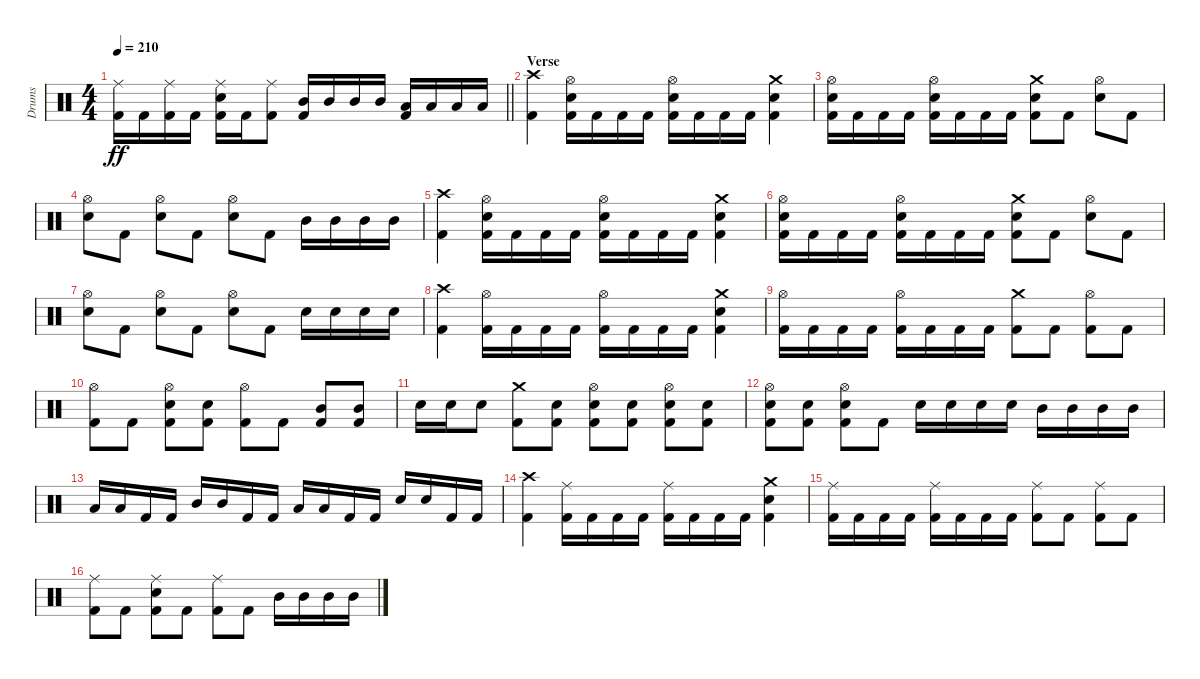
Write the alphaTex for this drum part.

\track ("Drums" "Drums") {instrument percussion}
\staff {score}
\articulation defaults
\ts (4 4)
\tempo 210
\clef neutral
\barLineRight lightlight
\ks c
("Ride (middle)" "Kick (hit) 2").16{dy ff} "Kick (hit) 2".16 ("Ride (middle)" "Kick (hit) 2").16 "Kick (hit) 2".16 ("Ride (middle)" "Snare (hit) 2" "Kick (hit) 2").16 "Kick (hit) 2".16 ("Ride (middle)" "Kick (hit) 2").8 ("Mid Tom (hit)" "Kick (hit) 2").16 "Mid Tom (hit)".16 "Mid Tom (hit)".16 "Mid Tom (hit)".16 ("Low Tom (hit)" "Kick (hit) 2").16 "Low Tom (hit)".16 "Low Tom (hit)".16 "Low Tom (hit)".16 |
\section ("" "Verse")
("Crash high (hit)" "Kick (hit) 2").4 ("Hi-Hat (open)" "Snare (hit) 2" "Kick (hit) 2").16 "Kick (hit) 2".16 "Kick (hit) 2".16 "Kick (hit) 2".16 ("Hi-Hat (open)" "Snare (hit) 2" "Kick (hit) 2").16 "Kick (hit) 2".16 "Kick (hit) 2".16 "Kick (hit) 2".16 ("Crash medium (hit)" "Snare (hit) 2" "Kick (hit) 2").4 |
("Hi-Hat (open)" "Snare (hit) 2" "Kick (hit) 2").16 "Kick (hit) 2".16 "Kick (hit) 2".16 "Kick (hit) 2".16 ("Hi-Hat (open)" "Snare (hit) 2" "Kick (hit) 2").16 "Kick (hit) 2".16 "Kick (hit) 2".16 "Kick (hit) 2".16 ("Crash medium (hit)" "Snare (hit) 2" "Kick (hit) 2").8 "Kick (hit) 2".8 ("Hi-Hat (open)" "Snare (hit) 2").8 "Kick (hit) 2".8 |
("Hi-Hat (open)" "Snare (hit) 2").8 "Kick (hit) 2".8 ("Hi-Hat (open)" "Snare (hit) 2").8 "Kick (hit) 2".8 ("Hi-Hat (open)" "Snare (hit) 2").8 "Kick (hit) 2".8 "Mid Tom (hit)".16 "Mid Tom (hit)".16 "Mid Tom (hit)".16 "Mid Tom (hit)".16 |
("Crash high (hit)" "Kick (hit) 2").4 ("Hi-Hat (open)" "Snare (hit) 2" "Kick (hit) 2").16 "Kick (hit) 2".16 "Kick (hit) 2".16 "Kick (hit) 2".16 ("Hi-Hat (open)" "Snare (hit) 2" "Kick (hit) 2").16 "Kick (hit) 2".16 "Kick (hit) 2".16 "Kick (hit) 2".16 ("Crash medium (hit)" "Snare (hit) 2" "Kick (hit) 2").4 |
("Hi-Hat (open)" "Snare (hit) 2" "Kick (hit) 2").16 "Kick (hit) 2".16 "Kick (hit) 2".16 "Kick (hit) 2".16 ("Hi-Hat (open)" "Snare (hit) 2" "Kick (hit) 2").16 "Kick (hit) 2".16 "Kick (hit) 2".16 "Kick (hit) 2".16 ("Crash medium (hit)" "Snare (hit) 2" "Kick (hit) 2").8 "Kick (hit) 2".8 ("Hi-Hat (open)" "Snare (hit) 2").8 "Kick (hit) 2".8 |
("Hi-Hat (open)" "Snare (hit) 2").8 "Kick (hit) 2".8 ("Hi-Hat (open)" "Snare (hit) 2").8 "Kick (hit) 2".8 ("Hi-Hat (open)" "Snare (hit) 2").8 "Kick (hit) 2".8 "Snare (hit) 2".16 "Snare (hit) 2".16 "Snare (hit) 2".16 "Snare (hit) 2".16 |
("Crash high (hit)" "Kick (hit) 2").4 ("Hi-Hat (open)" "Kick (hit) 2").16 "Kick (hit) 2".16 "Kick (hit) 2".16 "Kick (hit) 2".16 ("Hi-Hat (open)" "Kick (hit) 2").16 "Kick (hit) 2".16 "Kick (hit) 2".16 "Kick (hit) 2".16 ("Crash medium (hit)" "Snare (hit) 2" "Kick (hit) 2").4 |
("Hi-Hat (open)" "Kick (hit) 2").16 "Kick (hit) 2".16 "Kick (hit) 2".16 "Kick (hit) 2".16 ("Hi-Hat (open)" "Kick (hit) 2").16 "Kick (hit) 2".16 "Kick (hit) 2".16 "Kick (hit) 2".16 ("Crash medium (hit)" "Kick (hit) 2").8 "Kick (hit) 2".8 ("Hi-Hat (open)" "Kick (hit) 2").8 "Kick (hit) 2".8 |
("Hi-Hat (open)" "Kick (hit) 2").8 "Kick (hit) 2".8 ("Hi-Hat (open)" "Snare (hit) 2" "Kick (hit) 2").8 ("Snare (hit) 2" "Kick (hit) 2").8 ("Hi-Hat (open)" "Kick (hit) 2").8 "Kick (hit) 2".8 ("Mid Tom (hit)" "Kick (hit) 2").8 ("Mid Tom (hit)" "Kick (hit) 2").8 |
"Snare (hit) 2".16 "Snare (hit) 2".16 "Snare (hit) 2".8 ("Crash medium (hit)" "Kick (hit) 2").8 ("Snare (hit) 2" "Kick (hit) 2").8 ("Hi-Hat (open)" "Snare (hit) 2" "Kick (hit) 2").8 ("Snare (hit) 2" "Kick (hit) 2").8 ("Hi-Hat (open)" "Snare (hit) 2" "Kick (hit) 2").8 ("Snare (hit) 2" "Kick (hit) 2").8 |
("Hi-Hat (open)" "Snare (hit) 2" "Kick (hit) 2").8 ("Snare (hit) 2" "Kick (hit) 2").8 ("Hi-Hat (open)" "Snare (hit) 2" "Kick (hit) 2").8 "Kick (hit) 2".8 "Snare (hit) 2".16 "Snare (hit) 2".16 "Snare (hit) 2".16 "Snare (hit) 2".16 "Mid Tom (hit)".16 "Mid Tom (hit)".16 "Mid Tom (hit)".16 "Mid Tom (hit)".16 |
"Low Tom (hit)".16 "Low Tom (hit)".16 "Kick (hit) 2".16 "Kick (hit) 2".16 "Mid Tom (hit)".16 "Mid Tom (hit)".16 "Kick (hit) 2".16 "Kick (hit) 2".16 "Low Tom (hit)".16 "Low Tom (hit)".16 "Kick (hit) 2".16 "Kick (hit) 2".16 "Snare (hit) 2".16 "Snare (hit) 2".16 "Kick (hit) 2".16 "Kick (hit) 2".16 |
("Crash high (hit)" "Kick (hit) 2").4 ("Ride (middle)" "Kick (hit) 2").16 "Kick (hit) 2".16 "Kick (hit) 2".16 "Kick (hit) 2".16 ("Ride (middle)" "Kick (hit) 2").16 "Kick (hit) 2".16 "Kick (hit) 2".16 "Kick (hit) 2".16 ("Crash medium (hit)" "Snare (hit) 2" "Kick (hit) 2").4 |
("Ride (middle)" "Kick (hit) 2").16 "Kick (hit) 2".16 "Kick (hit) 2".16 "Kick (hit) 2".16 ("Ride (middle)" "Kick (hit) 2").16 "Kick (hit) 2".16 "Kick (hit) 2".16 "Kick (hit) 2".16 ("Ride (middle)" "Kick (hit) 2").8 "Kick (hit) 2".8 ("Ride (middle)" "Kick (hit) 2").8 "Kick (hit) 2".8 |
("Ride (middle)" "Kick (hit) 2").8 "Kick (hit) 2".8 ("Ride (middle)" "Snare (hit) 2" "Kick (hit) 2").8 "Kick (hit) 2".8 ("Ride (middle)" "Kick (hit) 2").8 "Kick (hit) 2".8 "Mid Tom (hit)".16 "Mid Tom (hit)".16 "Mid Tom (hit)".16 "Mid Tom (hit)".16
